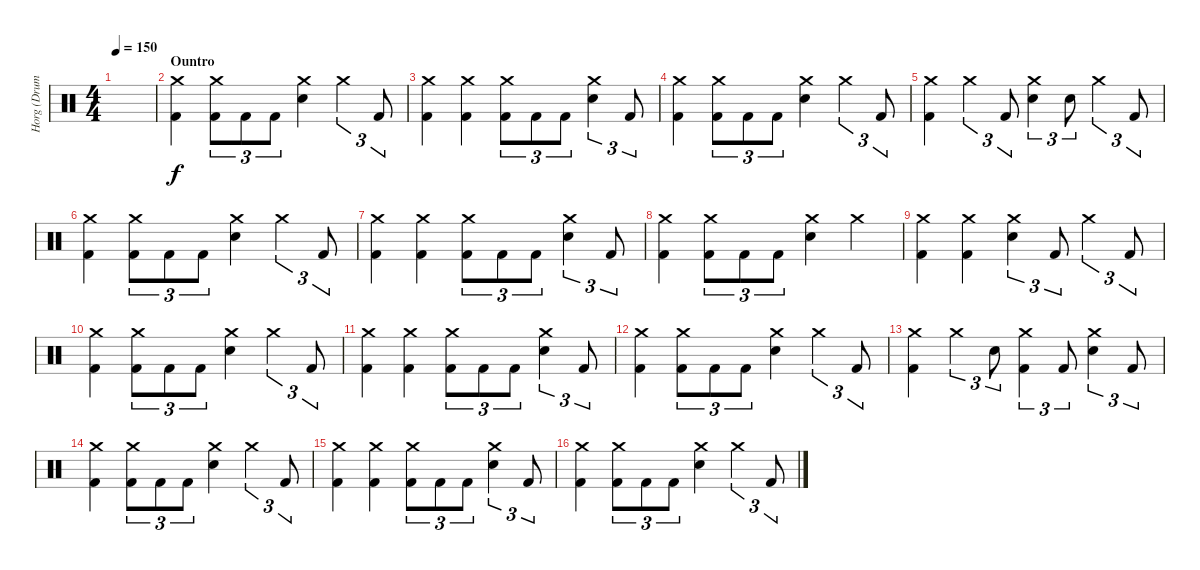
\track ("Horg (Drums)" "Horg (Drum") {instrument percussion}
\staff {score}
\articulation defaults
\ts (4 4)
\tempo 150
\clef neutral
\ks c
|
\section ("" "Ountro")
("Crash medium (hit)" "Kick (hit) 2").4 ("Crash medium (hit)" "Kick (hit) 2").8{tu (3 2)} "Kick (hit) 2".8{tu (3 2)} "Kick (hit) 2".8{tu (3 2)} ("Crash medium (hit)" "Electric Snare (hit)").4 "Crash medium (hit)".4{tu (3 2)} "Kick (hit) 2".8{tu (3 2)} |
("Crash medium (hit)" "Kick (hit) 2").4 ("Crash medium (hit)" "Kick (hit) 2").4 ("Crash medium (hit)" "Kick (hit) 2").8{tu (3 2)} "Kick (hit) 2".8{tu (3 2)} "Kick (hit) 2".8{tu (3 2)} ("Crash medium (hit)" "Electric Snare (hit)").4{tu (3 2)} "Kick (hit) 2".8{tu (3 2)} |
("Crash medium (hit)" "Kick (hit) 2").4 ("Crash medium (hit)" "Kick (hit) 2").8{tu (3 2)} "Kick (hit) 2".8{tu (3 2)} "Kick (hit) 2".8{tu (3 2)} ("Crash medium (hit)" "Electric Snare (hit)").4 "Crash medium (hit)".4{tu (3 2)} "Kick (hit) 2".8{tu (3 2)} |
("Crash medium (hit)" "Kick (hit) 2").4 "Crash medium (hit)".4{tu (3 2)} "Kick (hit) 2".8{tu (3 2)} ("Crash medium (hit)" "Electric Snare (hit)").4{tu (3 2)} "Electric Snare (hit)".8{tu (3 2)} "Crash medium (hit)".4{tu (3 2)} "Kick (hit) 2".8{tu (3 2)} |
("Crash medium (hit)" "Kick (hit) 2").4 ("Crash medium (hit)" "Kick (hit) 2").8{tu (3 2)} "Kick (hit) 2".8{tu (3 2)} "Kick (hit) 2".8{tu (3 2)} ("Crash medium (hit)" "Electric Snare (hit)").4 "Crash medium (hit)".4{tu (3 2)} "Kick (hit) 2".8{tu (3 2)} |
("Crash medium (hit)" "Kick (hit) 2").4 ("Crash medium (hit)" "Kick (hit) 2").4 ("Crash medium (hit)" "Kick (hit) 2").8{tu (3 2)} "Kick (hit) 2".8{tu (3 2)} "Kick (hit) 2".8{tu (3 2)} ("Crash medium (hit)" "Electric Snare (hit)").4{tu (3 2)} "Kick (hit) 2".8{tu (3 2)} |
("Crash medium (hit)" "Kick (hit) 2").4 ("Crash medium (hit)" "Kick (hit) 2").8{tu (3 2)} "Kick (hit) 2".8{tu (3 2)} "Kick (hit) 2".8{tu (3 2)} ("Crash medium (hit)" "Electric Snare (hit)").4 "Crash medium (hit)".4 |
("Crash medium (hit)" "Kick (hit) 2").4 ("Crash medium (hit)" "Kick (hit) 2").4 ("Crash medium (hit)" "Electric Snare (hit)").4{tu (3 2)} "Kick (hit) 2".8{tu (3 2)} "Crash medium (hit)".4{tu (3 2)} "Kick (hit) 2".8{tu (3 2)} |
("Crash medium (hit)" "Kick (hit) 2").4 ("Crash medium (hit)" "Kick (hit) 2").8{tu (3 2)} "Kick (hit) 2".8{tu (3 2)} "Kick (hit) 2".8{tu (3 2)} ("Crash medium (hit)" "Electric Snare (hit)").4 "Crash medium (hit)".4{tu (3 2)} "Kick (hit) 2".8{tu (3 2)} |
("Crash medium (hit)" "Kick (hit) 2").4 ("Crash medium (hit)" "Kick (hit) 2").4 ("Crash medium (hit)" "Kick (hit) 2").8{tu (3 2)} "Kick (hit) 2".8{tu (3 2)} "Kick (hit) 2".8{tu (3 2)} ("Crash medium (hit)" "Electric Snare (hit)").4{tu (3 2)} "Kick (hit) 2".8{tu (3 2)} |
("Crash medium (hit)" "Kick (hit) 2").4 ("Crash medium (hit)" "Kick (hit) 2").8{tu (3 2)} "Kick (hit) 2".8{tu (3 2)} "Kick (hit) 2".8{tu (3 2)} ("Crash medium (hit)" "Electric Snare (hit)").4 "Crash medium (hit)".4{tu (3 2)} "Kick (hit) 2".8{tu (3 2)} |
("Crash medium (hit)" "Kick (hit) 2").4 "Crash medium (hit)".4{tu (3 2)} "Electric Snare (hit)".8{tu (3 2)} ("Crash medium (hit)" "Kick (hit) 2").4{tu (3 2)} "Kick (hit) 2".8{tu (3 2)} ("Crash medium (hit)" "Electric Snare (hit)").4{tu (3 2)} "Kick (hit) 2".8{tu (3 2)} |
("Crash medium (hit)" "Kick (hit) 2").4 ("Crash medium (hit)" "Kick (hit) 2").8{tu (3 2)} "Kick (hit) 2".8{tu (3 2)} "Kick (hit) 2".8{tu (3 2)} ("Crash medium (hit)" "Electric Snare (hit)").4 "Crash medium (hit)".4{tu (3 2)} "Kick (hit) 2".8{tu (3 2)} |
("Crash medium (hit)" "Kick (hit) 2").4 ("Crash medium (hit)" "Kick (hit) 2").4 ("Crash medium (hit)" "Kick (hit) 2").8{tu (3 2)} "Kick (hit) 2".8{tu (3 2)} "Kick (hit) 2".8{tu (3 2)} ("Crash medium (hit)" "Electric Snare (hit)").4{tu (3 2)} "Kick (hit) 2".8{tu (3 2)} |
("Crash medium (hit)" "Kick (hit) 2").4 ("Crash medium (hit)" "Kick (hit) 2").8{tu (3 2)} "Kick (hit) 2".8{tu (3 2)} "Kick (hit) 2".8{tu (3 2)} ("Crash medium (hit)" "Electric Snare (hit)").4 "Crash medium (hit)".4{tu (3 2)} "Kick (hit) 2".8{tu (3 2)}
